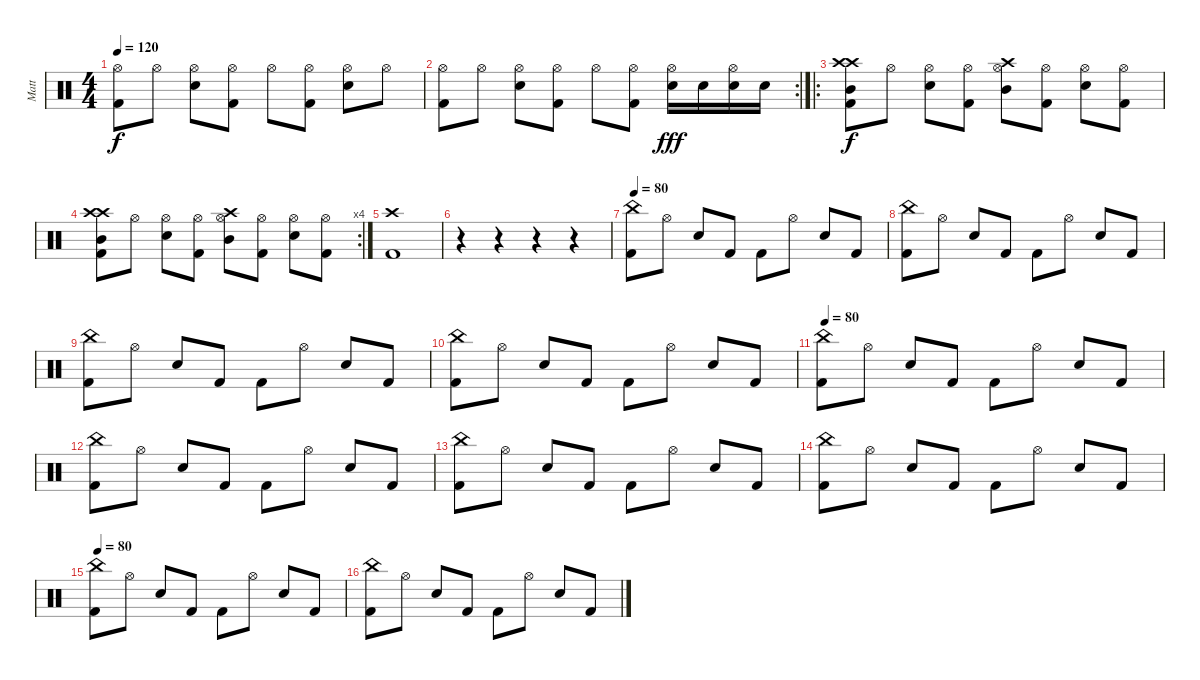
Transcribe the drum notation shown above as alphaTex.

\track ("Matt" "Matt") {instrument percussion}
\staff {score}
\articulation defaults
\ts (4 4)
\tempo 120
\clef neutral
\ks c
("Hi-Hat (open)" "Kick (hit) 2").8{dy f} "Hi-Hat (open)".8 ("Hi-Hat (open)" "Snare (hit) 2").8 ("Hi-Hat (open)" "Kick (hit) 2").8 "Hi-Hat (open)".8 ("Hi-Hat (open)" "Kick (hit) 2").8 ("Hi-Hat (open)" "Snare (hit) 2").8 "Hi-Hat (open)".8 |
\rc 2
("Hi-Hat (open)" "Kick (hit) 2").8 "Hi-Hat (open)".8 ("Hi-Hat (open)" "Snare (hit) 2").8 ("Hi-Hat (open)" "Kick (hit) 2").8 "Hi-Hat (open)".8 ("Hi-Hat (open)" "Kick (hit) 2").8 ("Hi-Hat (open)" "Electric Snare (hit)").16{dy fff} "Electric Snare (hit)".16 ("Hi-Hat (open)" "Electric Snare (hit)").16 "Electric Snare (hit)".16 |
\ro
("Mid Tom (hit)" "Crash high (hit)" "Crash high (hit)" "Kick (hit) 2").8{dy f} "Hi-Hat (open)".8 ("Hi-Hat (open)" "Snare (hit) 2").8 ("Hi-Hat (open)" "Kick (hit) 2").8 ("Mid Tom (hit)" "Crash high (hit)" "Hi-Hat (open)").8 ("Hi-Hat (open)" "Kick (hit) 2").8 ("Hi-Hat (open)" "Snare (hit) 2").8 ("Hi-Hat (open)" "Kick (hit) 2").8 |
\rc 4
("Mid Tom (hit)" "Crash high (hit)" "Crash high (hit)" "Kick (hit) 2").8 "Hi-Hat (open)".8 ("Hi-Hat (open)" "Snare (hit) 2").8 ("Hi-Hat (open)" "Kick (hit) 2").8 ("Mid Tom (hit)" "Crash high (hit)" "Hi-Hat (open)").8 ("Hi-Hat (open)" "Kick (hit) 2").8 ("Hi-Hat (open)" "Snare (hit) 2").8 ("Hi-Hat (open)" "Kick (hit) 2").8 |
("Crash high (hit)" "Kick (hit) 2").1 |
r.4 r.4 r.4 r.4 |
\tempo 80
("China (hit)" "Kick (hit) 2").8 "Hi-Hat (open)".8 "Snare (hit) 2".8 "Kick (hit) 2".8 "Kick (hit) 2".8 "Hi-Hat (open)".8 "Snare (hit) 2".8 "Kick (hit) 2".8 |
("China (hit)" "Kick (hit) 2").8 "Hi-Hat (open)".8 "Snare (hit) 2".8 "Kick (hit) 2".8 "Kick (hit) 2".8 "Hi-Hat (open)".8 "Snare (hit) 2".8 "Kick (hit) 2".8 |
("China (hit)" "Kick (hit) 2").8 "Hi-Hat (open)".8 "Snare (hit) 2".8 "Kick (hit) 2".8 "Kick (hit) 2".8 "Hi-Hat (open)".8 "Snare (hit) 2".8 "Kick (hit) 2".8 |
("China (hit)" "Kick (hit) 2").8 "Hi-Hat (open)".8 "Snare (hit) 2".8 "Kick (hit) 2".8 "Kick (hit) 2".8 "Hi-Hat (open)".8 "Snare (hit) 2".8 "Kick (hit) 2".8 |
\tempo 80
("China (hit)" "Kick (hit) 2").8 "Hi-Hat (open)".8 "Snare (hit) 2".8 "Kick (hit) 2".8 "Kick (hit) 2".8 "Hi-Hat (open)".8 "Snare (hit) 2".8 "Kick (hit) 2".8 |
("China (hit)" "Kick (hit) 2").8 "Hi-Hat (open)".8 "Snare (hit) 2".8 "Kick (hit) 2".8 "Kick (hit) 2".8 "Hi-Hat (open)".8 "Snare (hit) 2".8 "Kick (hit) 2".8 |
("China (hit)" "Kick (hit) 2").8 "Hi-Hat (open)".8 "Snare (hit) 2".8 "Kick (hit) 2".8 "Kick (hit) 2".8 "Hi-Hat (open)".8 "Snare (hit) 2".8 "Kick (hit) 2".8 |
("China (hit)" "Kick (hit) 2").8 "Hi-Hat (open)".8 "Snare (hit) 2".8 "Kick (hit) 2".8 "Kick (hit) 2".8 "Hi-Hat (open)".8 "Snare (hit) 2".8 "Kick (hit) 2".8 |
\tempo 80
("China (hit)" "Kick (hit) 2").8 "Hi-Hat (open)".8 "Snare (hit) 2".8 "Kick (hit) 2".8 "Kick (hit) 2".8 "Hi-Hat (open)".8 "Snare (hit) 2".8 "Kick (hit) 2".8 |
("China (hit)" "Kick (hit) 2").8 "Hi-Hat (open)".8 "Snare (hit) 2".8 "Kick (hit) 2".8 "Kick (hit) 2".8 "Hi-Hat (open)".8 "Snare (hit) 2".8 "Kick (hit) 2".8
